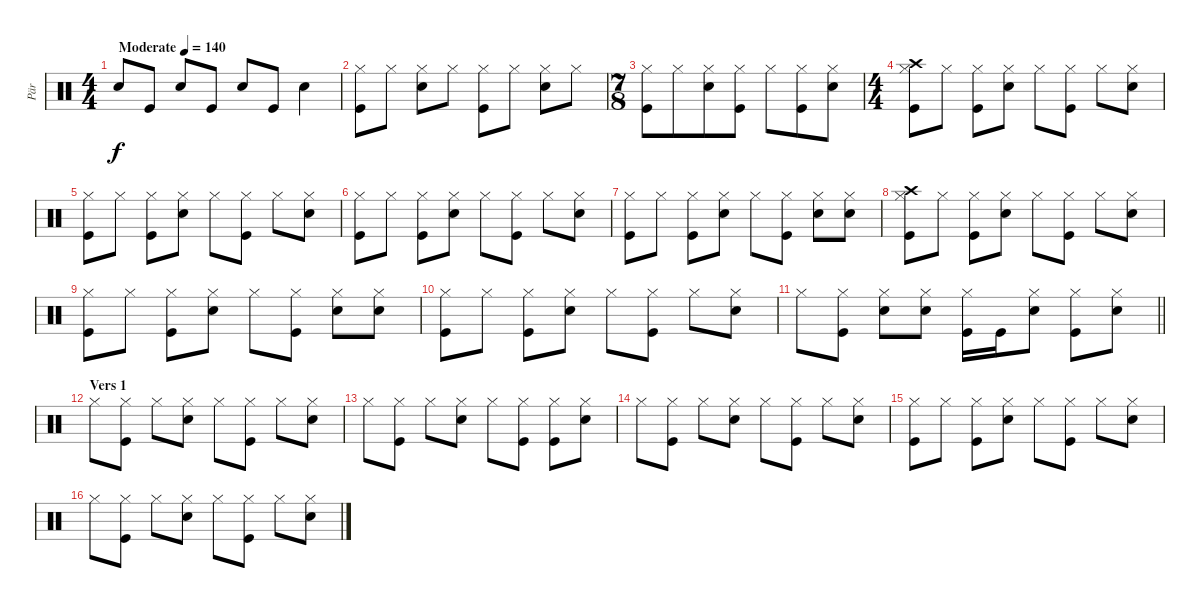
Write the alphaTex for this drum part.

\track ("Pär" "Pär") {instrument percussion}
\staff {score}
\articulation defaults
\ts (4 4)
\tempo (140 "Moderate")
\clef neutral
\ks c "Snare (hit) 2".8{dy f} "Kick (hit)".8 "Snare (hit) 2".8 "Kick (hit)".8 "Snare (hit) 2".8 "Kick (hit)".8 "Snare (hit) 2".4
|
("Hi-Hat (closed)" "Kick (hit)").8 "Hi-Hat (closed)".8 ("Hi-Hat (closed)" "Snare (hit) 2").8 "Hi-Hat (closed)".8 ("Hi-Hat (closed)" "Kick (hit)").8 "Hi-Hat (closed)".8 ("Hi-Hat (closed)" "Snare (hit) 2").8 "Hi-Hat (closed)".8 |
\ts (7 8)
("Hi-Hat (closed)" "Kick (hit)").8 "Hi-Hat (closed)".8 ("Hi-Hat (closed)" "Snare (hit) 2").8 ("Hi-Hat (closed)" "Kick (hit)").8 "Hi-Hat (closed)".8 ("Hi-Hat (closed)" "Kick (hit)").8 ("Hi-Hat (closed)" "Snare (hit) 2").8 |
\ts (4 4)
("Hi-Hat (closed)" "Crash high (hit)" "Kick (hit)").8 "Hi-Hat (closed)".8 ("Hi-Hat (closed)" "Kick (hit)").8 ("Hi-Hat (closed)" "Snare (hit) 2").8 "Hi-Hat (closed)".8 ("Hi-Hat (closed)" "Kick (hit)").8 "Hi-Hat (closed)".8 ("Hi-Hat (closed)" "Snare (hit) 2").8 |
("Hi-Hat (closed)" "Kick (hit)").8 "Hi-Hat (closed)".8 ("Hi-Hat (closed)" "Kick (hit)").8 ("Hi-Hat (closed)" "Snare (hit) 2").8 "Hi-Hat (closed)".8 ("Hi-Hat (closed)" "Kick (hit)").8 "Hi-Hat (closed)".8 ("Hi-Hat (closed)" "Snare (hit) 2").8 |
("Hi-Hat (closed)" "Kick (hit)").8 "Hi-Hat (closed)".8 ("Hi-Hat (closed)" "Kick (hit)").8 ("Hi-Hat (closed)" "Snare (hit) 2").8 "Hi-Hat (closed)".8 ("Hi-Hat (closed)" "Kick (hit)").8 "Hi-Hat (closed)".8 ("Hi-Hat (closed)" "Snare (hit) 2").8 |
("Hi-Hat (closed)" "Kick (hit)").8 "Hi-Hat (closed)".8 ("Hi-Hat (closed)" "Kick (hit)").8 ("Hi-Hat (closed)" "Snare (hit) 2").8 "Hi-Hat (closed)".8 ("Hi-Hat (closed)" "Kick (hit)").8 ("Hi-Hat (closed)" "Snare (hit) 2").8 ("Hi-Hat (closed)" "Snare (hit) 2").8 |
("Hi-Hat (closed)" "Crash high (hit)" "Kick (hit)").8 "Hi-Hat (closed)".8 ("Hi-Hat (closed)" "Kick (hit)").8 ("Hi-Hat (closed)" "Snare (hit) 2").8 "Hi-Hat (closed)".8 ("Hi-Hat (closed)" "Kick (hit)").8 "Hi-Hat (closed)".8 ("Hi-Hat (closed)" "Snare (hit) 2").8 |
("Hi-Hat (closed)" "Kick (hit)").8 "Hi-Hat (closed)".8 ("Hi-Hat (closed)" "Kick (hit)").8 ("Hi-Hat (closed)" "Snare (hit) 2").8 "Hi-Hat (closed)".8 ("Hi-Hat (closed)" "Kick (hit)").8 ("Hi-Hat (closed)" "Snare (hit) 2").8 ("Hi-Hat (closed)" "Snare (hit) 2").8 |
("Hi-Hat (closed)" "Kick (hit)").8 "Hi-Hat (closed)".8 ("Hi-Hat (closed)" "Kick (hit)").8 ("Hi-Hat (closed)" "Snare (hit) 2").8 "Hi-Hat (closed)".8 ("Hi-Hat (closed)" "Kick (hit)").8 "Hi-Hat (closed)".8 ("Hi-Hat (closed)" "Snare (hit) 2").8 |
\barLineRight lightlight "Hi-Hat (closed)".8
("Hi-Hat (closed)" "Kick (hit)").8 ("Hi-Hat (closed)" "Snare (hit) 2").8 ("Hi-Hat (closed)" "Snare (hit) 2").8 ("Hi-Hat (closed)" "Kick (hit)").16 "Kick (hit)".16 ("Hi-Hat (closed)" "Snare (hit) 2").8 ("Hi-Hat (closed)" "Kick (hit)").8 ("Hi-Hat (closed)" "Snare (hit) 2").8 |
\section ("" "Vers 1")
"Hi-Hat (closed)".8 ("Hi-Hat (closed)" "Kick (hit)").8 "Hi-Hat (closed)".8 ("Hi-Hat (closed)" "Snare (hit) 2").8 "Hi-Hat (closed)".8 ("Hi-Hat (closed)" "Kick (hit)").8 "Hi-Hat (closed)".8 ("Hi-Hat (closed)" "Snare (hit) 2").8 |
"Hi-Hat (closed)".8 ("Hi-Hat (closed)" "Kick (hit)").8 "Hi-Hat (closed)".8 ("Hi-Hat (closed)" "Snare (hit) 2").8 "Hi-Hat (closed)".8 ("Hi-Hat (closed)" "Kick (hit)").8 ("Hi-Hat (closed)" "Kick (hit)").8 ("Hi-Hat (closed)" "Snare (hit) 2").8 |
"Hi-Hat (closed)".8 ("Hi-Hat (closed)" "Kick (hit)").8 "Hi-Hat (closed)".8 ("Hi-Hat (closed)" "Snare (hit) 2").8 "Hi-Hat (closed)".8 ("Hi-Hat (closed)" "Kick (hit)").8 "Hi-Hat (closed)".8 ("Hi-Hat (closed)" "Snare (hit) 2").8 |
("Hi-Hat (closed)" "Kick (hit)").8 "Hi-Hat (closed)".8 ("Hi-Hat (closed)" "Kick (hit)").8 ("Hi-Hat (closed)" "Snare (hit) 2").8 "Hi-Hat (closed)".8 ("Hi-Hat (closed)" "Kick (hit)").8 "Hi-Hat (closed)".8 ("Hi-Hat (closed)" "Snare (hit) 2").8 |
"Hi-Hat (closed)".8 ("Hi-Hat (closed)" "Kick (hit)").8 "Hi-Hat (closed)".8 ("Hi-Hat (closed)" "Snare (hit) 2").8 "Hi-Hat (closed)".8 ("Hi-Hat (closed)" "Kick (hit)").8 "Hi-Hat (closed)".8 ("Hi-Hat (closed)" "Snare (hit) 2").8
